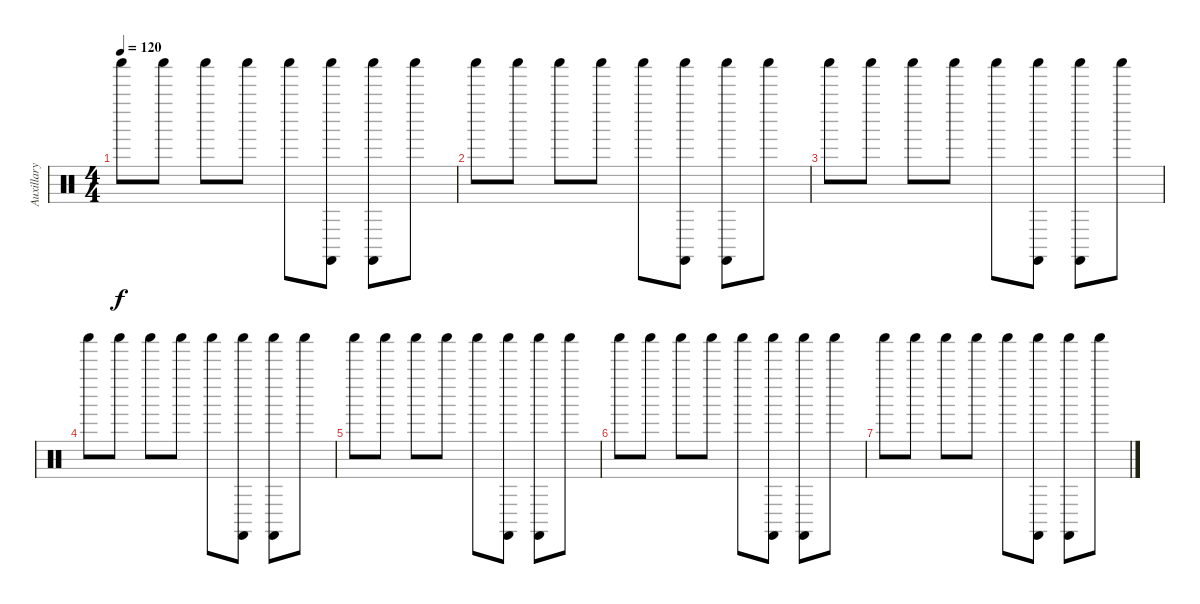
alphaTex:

\track ("Auxillary" "Auxillary") {instrument percussion}
\staff {score}
\articulation defaults
\ts (4 4)
\tempo 120
\clef neutral
\ks c "Shaker (hit)".8{dy f} "Shaker (hit)".8 "Shaker (hit)".8 "Shaker (hit)".8 "Shaker (hit)".8
("Shaker (hit)" "Castanets (hit)").8 ("Shaker (hit)" "Castanets (hit)").8 "Shaker (hit)".8 |
"Shaker (hit)".8 "Shaker (hit)".8 "Shaker (hit)".8 "Shaker (hit)".8 "Shaker (hit)".8 ("Shaker (hit)" "Castanets (hit)").8 ("Shaker (hit)" "Castanets (hit)").8 "Shaker (hit)".8 |
"Shaker (hit)".8 "Shaker (hit)".8 "Shaker (hit)".8 "Shaker (hit)".8 "Shaker (hit)".8 ("Shaker (hit)" "Castanets (hit)").8 ("Shaker (hit)" "Castanets (hit)").8 "Shaker (hit)".8 |
"Shaker (hit)".8 "Shaker (hit)".8 "Shaker (hit)".8 "Shaker (hit)".8 "Shaker (hit)".8 ("Shaker (hit)" "Castanets (hit)").8 ("Shaker (hit)" "Castanets (hit)").8 "Shaker (hit)".8 |
"Shaker (hit)".8 "Shaker (hit)".8 "Shaker (hit)".8 "Shaker (hit)".8 "Shaker (hit)".8 ("Shaker (hit)" "Castanets (hit)").8 ("Shaker (hit)" "Castanets (hit)").8 "Shaker (hit)".8 |
"Shaker (hit)".8 "Shaker (hit)".8 "Shaker (hit)".8 "Shaker (hit)".8 "Shaker (hit)".8 ("Shaker (hit)" "Castanets (hit)").8 ("Shaker (hit)" "Castanets (hit)").8 "Shaker (hit)".8 |
"Shaker (hit)".8 "Shaker (hit)".8 "Shaker (hit)".8 "Shaker (hit)".8 "Shaker (hit)".8 ("Shaker (hit)" "Castanets (hit)").8 ("Shaker (hit)" "Castanets (hit)").8 "Shaker (hit)".8
